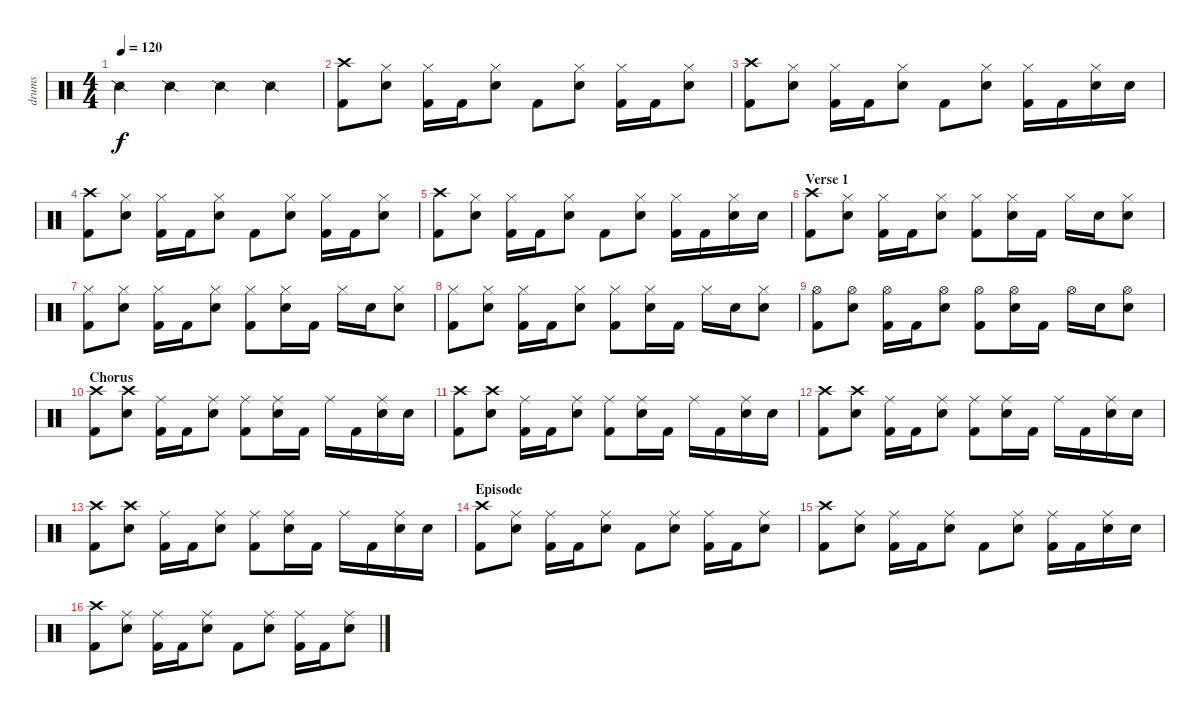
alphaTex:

\track ("drums" "drums") {instrument percussion}
\staff {score}
\articulation defaults
\ts (4 4)
\tempo 120
\clef neutral
\ks c "Snare (side stick) 2".4{dy f} "Snare (side stick) 2".4 "Snare (side stick) 2".4 "Snare (side stick) 2".4
|
("Crash high (hit)" "Kick (hit) 2").8 ("Hi-Hat (closed)" "Snare (hit) 2").8 ("Hi-Hat (closed)" "Kick (hit) 2").16 "Kick (hit) 2".16 ("Hi-Hat (closed)" "Snare (hit) 2").8 "Kick (hit) 2".8 ("Hi-Hat (closed)" "Snare (hit) 2").8 ("Hi-Hat (closed)" "Kick (hit) 2").16 "Kick (hit) 2".16 ("Hi-Hat (closed)" "Snare (hit) 2").8 |
("Crash high (hit)" "Kick (hit) 2").8 ("Hi-Hat (closed)" "Snare (hit) 2").8 ("Hi-Hat (closed)" "Kick (hit) 2").16 "Kick (hit) 2".16 ("Hi-Hat (closed)" "Snare (hit) 2").8 "Kick (hit) 2".8 ("Hi-Hat (closed)" "Snare (hit) 2").8 ("Hi-Hat (closed)" "Kick (hit) 2").16 "Kick (hit) 2".16 ("Hi-Hat (closed)" "Snare (hit) 2").16 "Snare (hit) 2".16 |
("Crash high (hit)" "Kick (hit) 2").8 ("Hi-Hat (closed)" "Snare (hit) 2").8 ("Hi-Hat (closed)" "Kick (hit) 2").16 "Kick (hit) 2".16 ("Hi-Hat (closed)" "Snare (hit) 2").8 "Kick (hit) 2".8 ("Hi-Hat (closed)" "Snare (hit) 2").8 ("Hi-Hat (closed)" "Kick (hit) 2").16 "Kick (hit) 2".16 ("Hi-Hat (closed)" "Snare (hit) 2").8 |
("Crash high (hit)" "Kick (hit) 2").8 ("Hi-Hat (closed)" "Snare (hit) 2").8 ("Hi-Hat (closed)" "Kick (hit) 2").16 "Kick (hit) 2".16 ("Hi-Hat (closed)" "Snare (hit) 2").8 "Kick (hit) 2".8 ("Hi-Hat (closed)" "Snare (hit) 2").8 ("Hi-Hat (closed)" "Kick (hit) 2").16 "Kick (hit) 2".16 ("Hi-Hat (closed)" "Snare (hit) 2").16 "Snare (hit) 2".16 |
\section ("" "Verse 1")
("Crash high (hit)" "Kick (hit) 2").8 ("Hi-Hat (closed)" "Snare (hit) 2").8 ("Hi-Hat (closed)" "Kick (hit) 2").16 "Kick (hit) 2".16 ("Hi-Hat (closed)" "Snare (hit) 2").8 ("Hi-Hat (closed)" "Kick (hit) 2").8 ("Hi-Hat (closed)" "Snare (hit) 2").16 "Kick (hit) 2".16 "Hi-Hat (closed)".16 "Snare (hit) 2".16 ("Hi-Hat (closed)" "Snare (hit) 2").8 |
("Hi-Hat (closed)" "Kick (hit) 2").8 ("Hi-Hat (closed)" "Snare (hit) 2").8 ("Hi-Hat (closed)" "Kick (hit) 2").16 "Kick (hit) 2".16 ("Hi-Hat (closed)" "Snare (hit) 2").8 ("Hi-Hat (closed)" "Kick (hit) 2").8 ("Hi-Hat (closed)" "Snare (hit) 2").16 "Kick (hit) 2".16 "Hi-Hat (closed)".16 "Snare (hit) 2".16 ("Hi-Hat (closed)" "Snare (hit) 2").8 |
("Hi-Hat (closed)" "Kick (hit) 2").8 ("Hi-Hat (closed)" "Snare (hit) 2").8 ("Hi-Hat (closed)" "Kick (hit) 2").16 "Kick (hit) 2".16 ("Hi-Hat (closed)" "Snare (hit) 2").8 ("Hi-Hat (closed)" "Kick (hit) 2").8 ("Hi-Hat (closed)" "Snare (hit) 2").16 "Kick (hit) 2".16 "Hi-Hat (closed)".16 "Snare (hit) 2".16 ("Hi-Hat (closed)" "Snare (hit) 2").8 |
("Hi-Hat (open)" "Kick (hit) 2").8 ("Hi-Hat (open)" "Snare (hit) 2").8 ("Hi-Hat (open)" "Kick (hit) 2").16 "Kick (hit) 2".16 ("Hi-Hat (open)" "Snare (hit) 2").8 ("Hi-Hat (open)" "Kick (hit) 2").8 ("Hi-Hat (open)" "Snare (hit) 2").16 "Kick (hit) 2".16 "Hi-Hat (open)".16 "Snare (hit) 2".16 ("Hi-Hat (open)" "Snare (hit) 2").8 |
\section ("" "Chorus")
("Crash high (hit)" "Kick (hit) 2").8 ("Crash high (hit)" "Snare (hit) 2").8 ("Ride (middle)" "Kick (hit) 2").16 "Kick (hit) 2".16 ("Ride (middle)" "Snare (hit) 2").8 ("Ride (middle)" "Kick (hit) 2").8 ("Ride (middle)" "Snare (hit) 2").16 "Kick (hit) 2".16 "Ride (middle)".16 "Kick (hit) 2".16 ("Ride (middle)" "Snare (hit) 2").16 "Snare (hit) 2".16 |
("Crash high (hit)" "Kick (hit) 2").8 ("Crash high (hit)" "Snare (hit) 2").8 ("Ride (middle)" "Kick (hit) 2").16 "Kick (hit) 2".16 ("Ride (middle)" "Snare (hit) 2").8 ("Ride (middle)" "Kick (hit) 2").8 ("Ride (middle)" "Snare (hit) 2").16 "Kick (hit) 2".16 "Ride (middle)".16 "Kick (hit) 2".16 ("Ride (middle)" "Snare (hit) 2").16 "Snare (hit) 2".16 |
("Crash high (hit)" "Kick (hit) 2").8 ("Crash high (hit)" "Snare (hit) 2").8 ("Ride (middle)" "Kick (hit) 2").16 "Kick (hit) 2".16 ("Ride (middle)" "Snare (hit) 2").8 ("Ride (middle)" "Kick (hit) 2").8 ("Ride (middle)" "Snare (hit) 2").16 "Kick (hit) 2".16 "Ride (middle)".16 "Kick (hit) 2".16 ("Ride (middle)" "Snare (hit) 2").16 "Snare (hit) 2".16 |
("Crash high (hit)" "Kick (hit) 2").8 ("Crash high (hit)" "Snare (hit) 2").8 ("Ride (middle)" "Kick (hit) 2").16 "Kick (hit) 2".16 ("Ride (middle)" "Snare (hit) 2").8 ("Ride (middle)" "Kick (hit) 2").8 ("Ride (middle)" "Snare (hit) 2").16 "Kick (hit) 2".16 "Ride (middle)".16 "Kick (hit) 2".16 ("Ride (middle)" "Snare (hit) 2").16 "Snare (hit) 2".16 |
\section ("" "Episode")
("Crash high (hit)" "Kick (hit) 2").8 ("Ride (middle)" "Snare (hit) 2").8 ("Ride (middle)" "Kick (hit) 2").16 "Kick (hit) 2".16 ("Ride (middle)" "Snare (hit) 2").8 "Kick (hit) 2".8 ("Ride (middle)" "Snare (hit) 2").8 ("Ride (middle)" "Kick (hit) 2").16 "Kick (hit) 2".16 ("Ride (middle)" "Snare (hit) 2").8 |
("Crash high (hit)" "Kick (hit) 2").8 ("Ride (middle)" "Snare (hit) 2").8 ("Ride (middle)" "Kick (hit) 2").16 "Kick (hit) 2".16 ("Ride (middle)" "Snare (hit) 2").8 "Kick (hit) 2".8 ("Ride (middle)" "Snare (hit) 2").8 ("Ride (middle)" "Kick (hit) 2").16 "Kick (hit) 2".16 ("Ride (middle)" "Snare (hit) 2").16 "Snare (hit) 2".16 |
("Crash high (hit)" "Kick (hit) 2").8 ("Ride (middle)" "Snare (hit) 2").8 ("Ride (middle)" "Kick (hit) 2").16 "Kick (hit) 2".16 ("Ride (middle)" "Snare (hit) 2").8 "Kick (hit) 2".8 ("Ride (middle)" "Snare (hit) 2").8 ("Ride (middle)" "Kick (hit) 2").16 "Kick (hit) 2".16 ("Ride (middle)" "Snare (hit) 2").8
